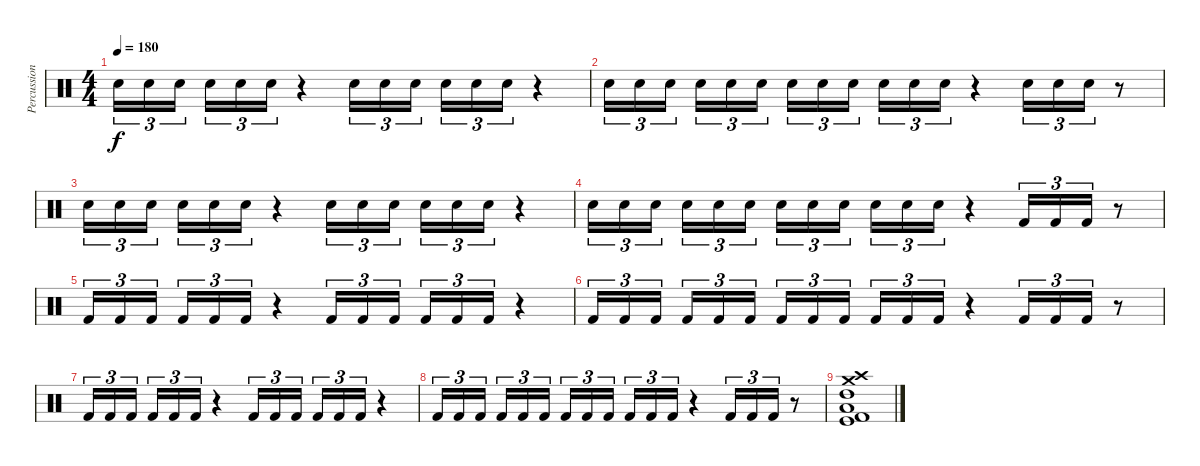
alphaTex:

\track ("Percussion" "Percussion") {instrument percussion}
\staff {score}
\articulation defaults
\ts (4 4)
\tempo 180
\clef neutral
\ks c "Electric Snare (hit)".16{tu (3 2) dy f} "Electric Snare (hit)".16{tu (3 2)} "Electric Snare (hit)".16{tu (3 2)} "Electric Snare (hit)".16{tu (3 2)} "Electric Snare (hit)".16{tu (3 2)} "Electric Snare (hit)".16{tu (3 2)}
r.4 "Electric Snare (hit)".16{tu (3 2)} "Electric Snare (hit)".16{tu (3 2)} "Electric Snare (hit)".16{tu (3 2)} "Electric Snare (hit)".16{tu (3 2)} "Electric Snare (hit)".16{tu (3 2)} "Electric Snare (hit)".16{tu (3 2)} r.4 |
"Electric Snare (hit)".16{tu (3 2)} "Electric Snare (hit)".16{tu (3 2)} "Electric Snare (hit)".16{tu (3 2)} "Electric Snare (hit)".16{tu (3 2)} "Electric Snare (hit)".16{tu (3 2)} "Electric Snare (hit)".16{tu (3 2)} "Electric Snare (hit)".16{tu (3 2)} "Electric Snare (hit)".16{tu (3 2)} "Electric Snare (hit)".16{tu (3 2)} "Electric Snare (hit)".16{tu (3 2)} "Electric Snare (hit)".16{tu (3 2)} "Electric Snare (hit)".16{tu (3 2)} r.4 "Electric Snare (hit)".16{tu (3 2)} "Electric Snare (hit)".16{tu (3 2)} "Electric Snare (hit)".16{tu (3 2)} r.8 |
"Electric Snare (hit)".16{tu (3 2)} "Electric Snare (hit)".16{tu (3 2)} "Electric Snare (hit)".16{tu (3 2)} "Electric Snare (hit)".16{tu (3 2)} "Electric Snare (hit)".16{tu (3 2)} "Electric Snare (hit)".16{tu (3 2)} r.4 "Electric Snare (hit)".16{tu (3 2)} "Electric Snare (hit)".16{tu (3 2)} "Electric Snare (hit)".16{tu (3 2)} "Electric Snare (hit)".16{tu (3 2)} "Electric Snare (hit)".16{tu (3 2)} "Electric Snare (hit)".16{tu (3 2)} r.4 |
"Electric Snare (hit)".16{tu (3 2)} "Electric Snare (hit)".16{tu (3 2)} "Electric Snare (hit)".16{tu (3 2)} "Electric Snare (hit)".16{tu (3 2)} "Electric Snare (hit)".16{tu (3 2)} "Electric Snare (hit)".16{tu (3 2)} "Electric Snare (hit)".16{tu (3 2)} "Electric Snare (hit)".16{tu (3 2)} "Electric Snare (hit)".16{tu (3 2)} "Electric Snare (hit)".16{tu (3 2)} "Electric Snare (hit)".16{tu (3 2)} "Electric Snare (hit)".16{tu (3 2)} r.4 "Kick (hit) 2".16{tu (3 2)} "Kick (hit) 2".16{tu (3 2)} "Kick (hit) 2".16{tu (3 2)} r.8 |
"Kick (hit) 2".16{tu (3 2)} "Kick (hit) 2".16{tu (3 2)} "Kick (hit) 2".16{tu (3 2)} "Kick (hit) 2".16{tu (3 2)} "Kick (hit) 2".16{tu (3 2)} "Kick (hit) 2".16{tu (3 2)} r.4 "Kick (hit) 2".16{tu (3 2)} "Kick (hit) 2".16{tu (3 2)} "Kick (hit) 2".16{tu (3 2)} "Kick (hit) 2".16{tu (3 2)} "Kick (hit) 2".16{tu (3 2)} "Kick (hit) 2".16{tu (3 2)} r.4 |
"Kick (hit) 2".16{tu (3 2)} "Kick (hit) 2".16{tu (3 2)} "Kick (hit) 2".16{tu (3 2)} "Kick (hit) 2".16{tu (3 2)} "Kick (hit) 2".16{tu (3 2)} "Kick (hit) 2".16{tu (3 2)} "Kick (hit) 2".16{tu (3 2)} "Kick (hit) 2".16{tu (3 2)} "Kick (hit) 2".16{tu (3 2)} "Kick (hit) 2".16{tu (3 2)} "Kick (hit) 2".16{tu (3 2)} "Kick (hit) 2".16{tu (3 2)} r.4 "Kick (hit) 2".16{tu (3 2)} "Kick (hit) 2".16{tu (3 2)} "Kick (hit) 2".16{tu (3 2)} r.8 |
"Kick (hit) 2".16{tu (3 2)} "Kick (hit) 2".16{tu (3 2)} "Kick (hit) 2".16{tu (3 2)} "Kick (hit) 2".16{tu (3 2)} "Kick (hit) 2".16{tu (3 2)} "Kick (hit) 2".16{tu (3 2)} r.4 "Kick (hit) 2".16{tu (3 2)} "Kick (hit) 2".16{tu (3 2)} "Kick (hit) 2".16{tu (3 2)} "Kick (hit) 2".16{tu (3 2)} "Kick (hit) 2".16{tu (3 2)} "Kick (hit) 2".16{tu (3 2)} r.4 |
"Kick (hit) 2".16{tu (3 2)} "Kick (hit) 2".16{tu (3 2)} "Kick (hit) 2".16{tu (3 2)} "Kick (hit) 2".16{tu (3 2)} "Kick (hit) 2".16{tu (3 2)} "Kick (hit) 2".16{tu (3 2)} "Kick (hit) 2".16{tu (3 2)} "Kick (hit) 2".16{tu (3 2)} "Kick (hit) 2".16{tu (3 2)} "Kick (hit) 2".16{tu (3 2)} "Kick (hit) 2".16{tu (3 2)} "Kick (hit) 2".16{tu (3 2)} r.4 "Kick (hit) 2".16{tu (3 2)} "Kick (hit) 2".16{tu (3 2)} "Kick (hit) 2".16{tu (3 2)} r.8 |
("High Tom (hit)" "Low Floor Tom (hit)" "Crash medium (hit)" "Crash high (hit)" "Kick (hit) 2" "Kick (hit)").1
